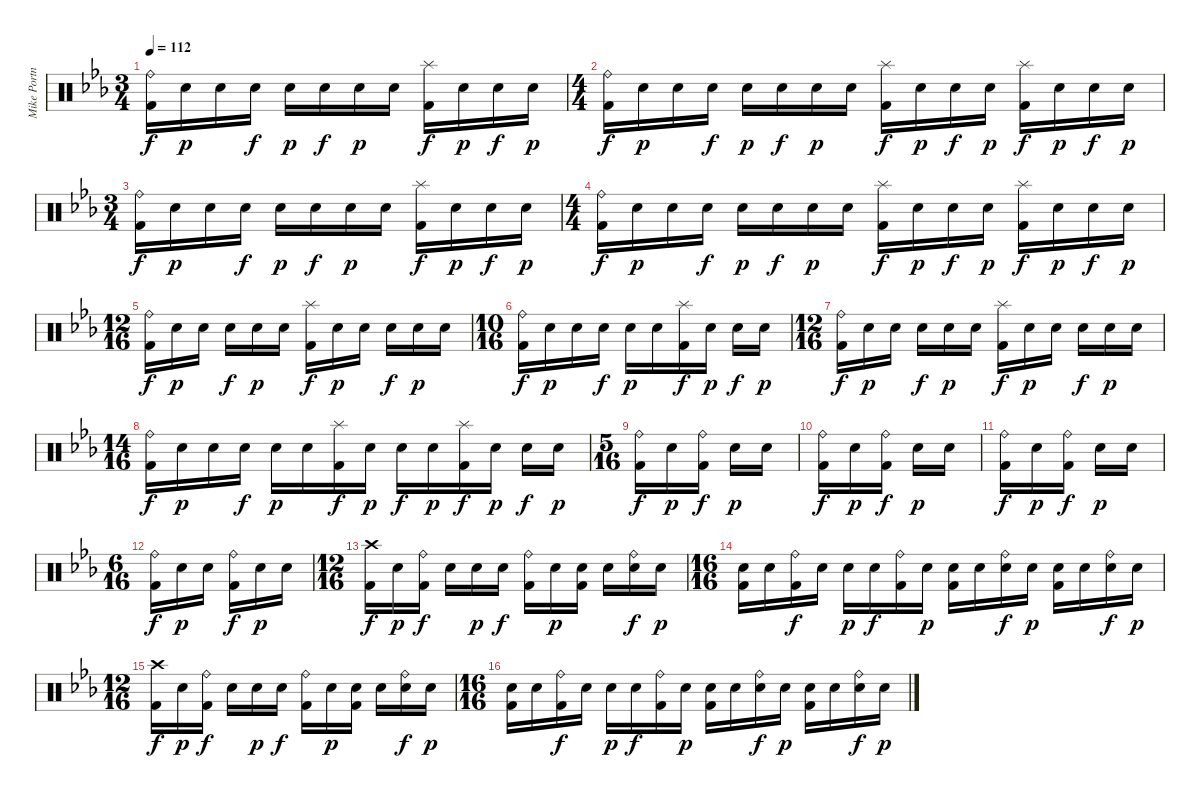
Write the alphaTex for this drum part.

\track ("Mike Portnoy" "Mike Portn") {instrument percussion}
\staff {score}
\articulation defaults
\ts (3 4)
\tempo 112
\clef neutral
\ks eb
("Ride (bell)" "Kick (hit) 2").16{dy f} "Snare (hit) 2".16{dy p} "Snare (hit) 2".16 "Snare (hit) 2".16{dy f} "Snare (hit) 2".16{dy p} "Snare (hit) 2".16{dy f} "Snare (hit) 2".16{dy p} "Snare (hit) 2".16 ("Splash (hit)" "Kick (hit) 2").16{dy f} "Snare (hit) 2".16{dy p} "Snare (hit) 2".16{dy f} "Snare (hit) 2".16{dy p} |
\ts (4 4)
("Ride (bell)" "Kick (hit) 2").16{dy f} "Snare (hit) 2".16{dy p} "Snare (hit) 2".16 "Snare (hit) 2".16{dy f} "Snare (hit) 2".16{dy p} "Snare (hit) 2".16{dy f} "Snare (hit) 2".16{dy p} "Snare (hit) 2".16 ("Splash (hit)" "Kick (hit) 2").16{dy f} "Snare (hit) 2".16{dy p} "Snare (hit) 2".16{dy f} "Snare (hit) 2".16{dy p} ("Splash (hit)" "Kick (hit) 2").16{dy f} "Snare (hit) 2".16{dy p} "Snare (hit) 2".16{dy f} "Snare (hit) 2".16{dy p} |
\ts (3 4)
("Ride (bell)" "Kick (hit) 2").16{dy f} "Snare (hit) 2".16{dy p} "Snare (hit) 2".16 "Snare (hit) 2".16{dy f} "Snare (hit) 2".16{dy p} "Snare (hit) 2".16{dy f} "Snare (hit) 2".16{dy p} "Snare (hit) 2".16 ("Splash (hit)" "Kick (hit) 2").16{dy f} "Snare (hit) 2".16{dy p} "Snare (hit) 2".16{dy f} "Snare (hit) 2".16{dy p} |
\ts (4 4)
("Ride (bell)" "Kick (hit) 2").16{dy f} "Snare (hit) 2".16{dy p} "Snare (hit) 2".16 "Snare (hit) 2".16{dy f} "Snare (hit) 2".16{dy p} "Snare (hit) 2".16{dy f} "Snare (hit) 2".16{dy p} "Snare (hit) 2".16 ("Splash (hit)" "Kick (hit) 2").16{dy f} "Snare (hit) 2".16{dy p} "Snare (hit) 2".16{dy f} "Snare (hit) 2".16{dy p} ("Splash (hit)" "Kick (hit) 2").16{dy f} "Snare (hit) 2".16{dy p} "Snare (hit) 2".16{dy f} "Snare (hit) 2".16{dy p} |
\ts (12 16)
("Ride (bell)" "Kick (hit) 2").16{dy f} "Snare (hit) 2".16{dy p} "Snare (hit) 2".16 "Snare (hit) 2".16{dy f} "Snare (hit) 2".16{dy p} "Snare (hit) 2".16 ("Splash (hit)" "Kick (hit) 2").16{dy f} "Snare (hit) 2".16{dy p} "Snare (hit) 2".16 "Snare (hit) 2".16{dy f} "Snare (hit) 2".16{dy p} "Snare (hit) 2".16 |
\ts (10 16)
("Ride (bell)" "Kick (hit) 2").16{dy f} "Snare (hit) 2".16{dy p} "Snare (hit) 2".16 "Snare (hit) 2".16{dy f} "Snare (hit) 2".16{dy p} "Snare (hit) 2".16 ("Splash (hit)" "Kick (hit) 2").16{dy f} "Snare (hit) 2".16{dy p} "Snare (hit) 2".16{dy f} "Snare (hit) 2".16{dy p} |
\ts (12 16)
("Ride (bell)" "Kick (hit) 2").16{dy f} "Snare (hit) 2".16{dy p} "Snare (hit) 2".16 "Snare (hit) 2".16{dy f} "Snare (hit) 2".16{dy p} "Snare (hit) 2".16 ("Splash (hit)" "Kick (hit) 2").16{dy f} "Snare (hit) 2".16{dy p} "Snare (hit) 2".16 "Snare (hit) 2".16{dy f} "Snare (hit) 2".16{dy p} "Snare (hit) 2".16 |
\ts (14 16)
("Ride (bell)" "Kick (hit) 2").16{dy f} "Snare (hit) 2".16{dy p} "Snare (hit) 2".16 "Snare (hit) 2".16{dy f} "Snare (hit) 2".16{dy p} "Snare (hit) 2".16 ("Splash (hit)" "Kick (hit) 2").16{dy f} "Snare (hit) 2".16{dy p} "Snare (hit) 2".16{dy f} "Snare (hit) 2".16{dy p} ("Splash (hit)" "Kick (hit) 2").16{dy f} "Snare (hit) 2".16{dy p} "Snare (hit) 2".16{dy f} "Snare (hit) 2".16{dy p} |
\ts (5 16)
("Ride (bell)" "Kick (hit) 2").16{dy f} "Snare (hit) 2".16{dy p} ("Ride (bell)" "Kick (hit) 2").16{dy f} "Snare (hit) 2".16{dy p} "Snare (hit) 2".16 |
("Ride (bell)" "Kick (hit) 2").16{dy f} "Snare (hit) 2".16{dy p} ("Ride (bell)" "Kick (hit) 2").16{dy f} "Snare (hit) 2".16{dy p} "Snare (hit) 2".16 |
("Ride (bell)" "Kick (hit) 2").16{dy f} "Snare (hit) 2".16{dy p} ("Ride (bell)" "Kick (hit) 2").16{dy f} "Snare (hit) 2".16{dy p} "Snare (hit) 2".16 |
\ts (6 16)
("Ride (bell)" "Kick (hit) 2").16{dy f} "Snare (hit) 2".16{dy p} "Snare (hit) 2".16 ("Ride (bell)" "Kick (hit) 2").16{dy f} "Snare (hit) 2".16{dy p} "Snare (hit) 2".16 |
\ts (12 16)
("Crash high (hit)" "Kick (hit) 2").16{dy f} "Snare (hit) 2".16{dy p} ("Ride (bell)" "Kick (hit) 2").16{dy f} "Snare (hit) 2".16 "Snare (hit) 2".16{dy p} "Snare (hit) 2".16{dy f} ("Ride (bell)" "Kick (hit) 2").16 "Snare (hit) 2".16{dy p} ("Snare (hit) 2" "Kick (hit) 2").16 "Snare (hit) 2".16 ("Ride (bell)" "Snare (hit) 2").16{dy f} "Snare (hit) 2".16{dy p} |
\ts (16 16)
("Snare (hit) 2" "Kick (hit) 2").16 "Snare (hit) 2".16 ("Ride (bell)" "Kick (hit) 2").16{dy f} "Snare (hit) 2".16 "Snare (hit) 2".16{dy p} "Snare (hit) 2".16{dy f} ("Ride (bell)" "Kick (hit) 2").16 "Snare (hit) 2".16{dy p} ("Snare (hit) 2" "Kick (hit) 2").16 "Snare (hit) 2".16 ("Ride (bell)" "Snare (hit) 2").16{dy f} "Snare (hit) 2".16{dy p} ("Snare (hit) 2" "Kick (hit) 2").16 "Snare (hit) 2".16 ("Ride (bell)" "Snare (hit) 2").16{dy f} "Snare (hit) 2".16{dy p} |
\ts (12 16)
("Crash high (hit)" "Kick (hit) 2").16{dy f} "Snare (hit) 2".16{dy p} ("Ride (bell)" "Kick (hit) 2").16{dy f} "Snare (hit) 2".16 "Snare (hit) 2".16{dy p} "Snare (hit) 2".16{dy f} ("Ride (bell)" "Kick (hit) 2").16 "Snare (hit) 2".16{dy p} ("Snare (hit) 2" "Kick (hit) 2").16 "Snare (hit) 2".16 ("Ride (bell)" "Snare (hit) 2").16{dy f} "Snare (hit) 2".16{dy p} |
\ts (16 16)
("Snare (hit) 2" "Kick (hit) 2").16 "Snare (hit) 2".16 ("Ride (bell)" "Kick (hit) 2").16{dy f} "Snare (hit) 2".16 "Snare (hit) 2".16{dy p} "Snare (hit) 2".16{dy f} ("Ride (bell)" "Kick (hit) 2").16 "Snare (hit) 2".16{dy p} ("Snare (hit) 2" "Kick (hit) 2").16 "Snare (hit) 2".16 ("Ride (bell)" "Snare (hit) 2").16{dy f} "Snare (hit) 2".16{dy p} ("Snare (hit) 2" "Kick (hit) 2").16 "Snare (hit) 2".16 ("Ride (bell)" "Snare (hit) 2").16{dy f} "Snare (hit) 2".16{dy p}
